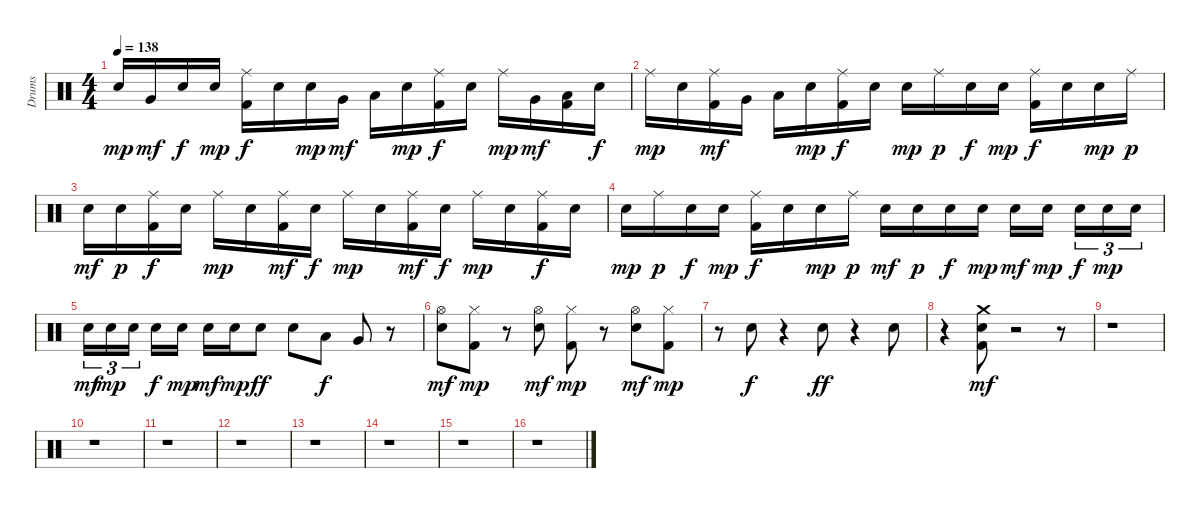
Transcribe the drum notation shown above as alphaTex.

\track ("Drums" "Drums") {instrument percussion}
\staff {score}
\articulation defaults
\ts (4 4)
\tempo 138
\clef neutral
\ks c "Electric Snare (hit)".16{dy mp} "Very Low Tom (hit)".16{dy mf} "Electric Snare (hit)".16{dy f} "Electric Snare (hit)".16{dy mp}
("Kick (hit) 2" "Ride (middle)").16{dy f} "Electric Snare (hit)".16 "Electric Snare (hit)".16{dy mp} "Very Low Tom (hit)".16{dy mf} "Low Floor Tom (hit)".16 "Electric Snare (hit)".16{dy mp} ("Kick (hit) 2" "Ride (middle)").16{dy f} "Electric Snare (hit)".16 "Ride (middle)".16{dy mp} "Very Low Tom (hit)".16{dy mf} ("Kick (hit) 2" "Low Floor Tom (hit)").16 "Electric Snare (hit)".16{dy f} |
"Ride (middle)".16{dy mp} "Electric Snare (hit)".16 ("Kick (hit) 2" "Ride (middle)").16{dy mf} "Very Low Tom (hit)".16 "Low Floor Tom (hit)".16 "Electric Snare (hit)".16{dy mp} ("Kick (hit) 2" "Ride (middle)").16{dy f} "Electric Snare (hit)".16 "Electric Snare (hit)".16{dy mp} "Ride (middle)".16{dy p} "Electric Snare (hit)".16{dy f} "Electric Snare (hit)".16{dy mp} ("Kick (hit) 2" "Ride (middle)").16{dy f} "Electric Snare (hit)".16 "Electric Snare (hit)".16{dy mp} "Ride (middle)".16{dy p} |
"Electric Snare (hit)".16{dy mf} "Electric Snare (hit)".16{dy p} ("Kick (hit) 2" "Ride (middle)").16{dy f} "Electric Snare (hit)".16 "Ride (middle)".16{dy mp} "Electric Snare (hit)".16 ("Kick (hit) 2" "Ride (middle)").16{dy mf} "Electric Snare (hit)".16{dy f} "Ride (middle)".16{dy mp} "Electric Snare (hit)".16 ("Kick (hit) 2" "Ride (middle)").16{dy mf} "Electric Snare (hit)".16{dy f} "Ride (middle)".16{dy mp} "Electric Snare (hit)".16 ("Kick (hit) 2" "Ride (middle)").16{dy f} "Electric Snare (hit)".16 |
"Electric Snare (hit)".16{dy mp} "Ride (middle)".16{dy p} "Electric Snare (hit)".16{dy f} "Electric Snare (hit)".16{dy mp} ("Kick (hit) 2" "Ride (middle)").16{dy f} "Electric Snare (hit)".16 "Electric Snare (hit)".16{dy mp} "Ride (middle)".16{dy p} "Electric Snare (hit)".16{dy mf} "Electric Snare (hit)".16{dy p} "Electric Snare (hit)".16{dy f} "Electric Snare (hit)".16{dy mp} "Electric Snare (hit)".16{dy mf} "Electric Snare (hit)".16{dy mp beam splitsecondary} "Electric Snare (hit)".16{tu (3 2) dy f} "Electric Snare (hit)".16{tu (3 2) dy mp} "Electric Snare (hit)".16{tu (3 2)} |
"Electric Snare (hit)".16{tu (3 2) dy mf} "Electric Snare (hit)".16{tu (3 2) dy mp} "Electric Snare (hit)".16{tu (3 2) beam splitsecondary} "Electric Snare (hit)".16{dy f} "Electric Snare (hit)".16{dy mp} "Electric Snare (hit)".16{dy mf} "Electric Snare (hit)".16{dy mp} "Electric Snare (hit)".8{dy ff} "Electric Snare (hit)".8 "Low Tom (hit)".8{dy f} "Very Low Tom (hit)".8 r.8 |
("Electric Snare (hit)" "Hi-Hat (open)").8{dy mf} ("Kick (hit) 2" "Hi-Hat (closed)").8{dy mp} r.8 ("Electric Snare (hit)" "Hi-Hat (open)").8{dy mf} ("Kick (hit) 2" "Hi-Hat (closed)").8{dy mp} r.8 ("Electric Snare (hit)" "Hi-Hat (open)").8{dy mf} ("Kick (hit) 2" "Hi-Hat (closed)").8{dy mp} |
r.8 "Electric Snare (hit)".8{dy f} r.4 "Electric Snare (hit)".8{dy ff} r.4 "Electric Snare (hit)".8 |
r.4 ("Kick (hit) 2" "Electric Snare (hit)" "Crash medium (hit)").8{dy mf} r.2 r.8 |
r.1 |
r.1 |
r.1 |
r.1 |
r.1 |
r.1 |
r.1 |
r.1
